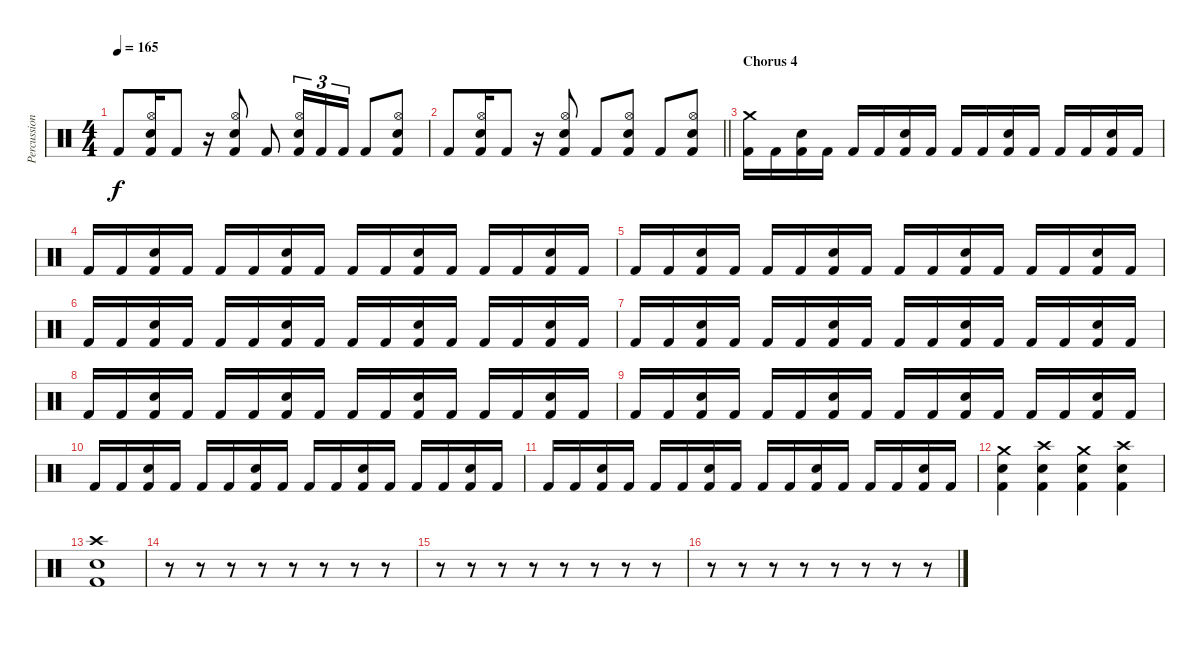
\track ("Percussion" "Percussion") {instrument percussion}
\staff {score}
\articulation defaults
\ts (4 4)
\tempo 165
\clef neutral
\ks c "Kick (hit) 2".8{dy f}
("Hi-Hat (open)" "Kick (hit) 2" "Snare (hit) 2").16 "Kick (hit) 2".8 r.16 ("Hi-Hat (open)" "Kick (hit) 2" "Snare (hit) 2").8 "Kick (hit) 2".8 ("Hi-Hat (open)" "Kick (hit) 2" "Snare (hit) 2").16{tu (3 2)} "Kick (hit) 2".16{tu (3 2)} "Kick (hit) 2".16{tu (3 2)} "Kick (hit) 2".8 ("Hi-Hat (open)" "Kick (hit) 2" "Snare (hit) 2").8 |
\barLineRight lightlight "Kick (hit) 2".8
("Hi-Hat (open)" "Kick (hit) 2" "Snare (hit) 2").16 "Kick (hit) 2".8 r.16 ("Hi-Hat (open)" "Kick (hit) 2" "Snare (hit) 2").8 "Kick (hit) 2".8 ("Hi-Hat (open)" "Kick (hit) 2" "Snare (hit) 2").8 "Kick (hit) 2".8 ("Hi-Hat (open)" "Kick (hit) 2" "Snare (hit) 2").8 |
\section ("" "Chorus 4")
("Crash medium (hit)" "Kick (hit) 2").16 "Kick (hit) 2".16 ("Kick (hit) 2" "Snare (hit) 2").16 "Kick (hit) 2".16 "Kick (hit) 2".16 "Kick (hit) 2".16 ("Kick (hit) 2" "Snare (hit) 2").16 "Kick (hit) 2".16 "Kick (hit) 2".16 "Kick (hit) 2".16 ("Kick (hit) 2" "Snare (hit) 2").16 "Kick (hit) 2".16 "Kick (hit) 2".16 "Kick (hit) 2".16 ("Kick (hit) 2" "Snare (hit) 2").16 "Kick (hit) 2".16 |
"Kick (hit) 2".16 "Kick (hit) 2".16 ("Kick (hit) 2" "Snare (hit) 2").16 "Kick (hit) 2".16 "Kick (hit) 2".16 "Kick (hit) 2".16 ("Kick (hit) 2" "Snare (hit) 2").16 "Kick (hit) 2".16 "Kick (hit) 2".16 "Kick (hit) 2".16 ("Kick (hit) 2" "Snare (hit) 2").16 "Kick (hit) 2".16 "Kick (hit) 2".16 "Kick (hit) 2".16 ("Kick (hit) 2" "Snare (hit) 2").16 "Kick (hit) 2".16 |
"Kick (hit) 2".16 "Kick (hit) 2".16 ("Kick (hit) 2" "Snare (hit) 2").16 "Kick (hit) 2".16 "Kick (hit) 2".16 "Kick (hit) 2".16 ("Kick (hit) 2" "Snare (hit) 2").16 "Kick (hit) 2".16 "Kick (hit) 2".16 "Kick (hit) 2".16 ("Kick (hit) 2" "Snare (hit) 2").16 "Kick (hit) 2".16 "Kick (hit) 2".16 "Kick (hit) 2".16 ("Kick (hit) 2" "Snare (hit) 2").16 "Kick (hit) 2".16 |
"Kick (hit) 2".16 "Kick (hit) 2".16 ("Kick (hit) 2" "Snare (hit) 2").16 "Kick (hit) 2".16 "Kick (hit) 2".16 "Kick (hit) 2".16 ("Kick (hit) 2" "Snare (hit) 2").16 "Kick (hit) 2".16 "Kick (hit) 2".16 "Kick (hit) 2".16 ("Kick (hit) 2" "Snare (hit) 2").16 "Kick (hit) 2".16 "Kick (hit) 2".16 "Kick (hit) 2".16 ("Kick (hit) 2" "Snare (hit) 2").16 "Kick (hit) 2".16 |
"Kick (hit) 2".16 "Kick (hit) 2".16 ("Kick (hit) 2" "Snare (hit) 2").16 "Kick (hit) 2".16 "Kick (hit) 2".16 "Kick (hit) 2".16 ("Kick (hit) 2" "Snare (hit) 2").16 "Kick (hit) 2".16 "Kick (hit) 2".16 "Kick (hit) 2".16 ("Kick (hit) 2" "Snare (hit) 2").16 "Kick (hit) 2".16 "Kick (hit) 2".16 "Kick (hit) 2".16 ("Kick (hit) 2" "Snare (hit) 2").16 "Kick (hit) 2".16 |
"Kick (hit) 2".16 "Kick (hit) 2".16 ("Kick (hit) 2" "Snare (hit) 2").16 "Kick (hit) 2".16 "Kick (hit) 2".16 "Kick (hit) 2".16 ("Kick (hit) 2" "Snare (hit) 2").16 "Kick (hit) 2".16 "Kick (hit) 2".16 "Kick (hit) 2".16 ("Kick (hit) 2" "Snare (hit) 2").16 "Kick (hit) 2".16 "Kick (hit) 2".16 "Kick (hit) 2".16 ("Kick (hit) 2" "Snare (hit) 2").16 "Kick (hit) 2".16 |
"Kick (hit) 2".16 "Kick (hit) 2".16 ("Kick (hit) 2" "Snare (hit) 2").16 "Kick (hit) 2".16 "Kick (hit) 2".16 "Kick (hit) 2".16 ("Kick (hit) 2" "Snare (hit) 2").16 "Kick (hit) 2".16 "Kick (hit) 2".16 "Kick (hit) 2".16 ("Kick (hit) 2" "Snare (hit) 2").16 "Kick (hit) 2".16 "Kick (hit) 2".16 "Kick (hit) 2".16 ("Kick (hit) 2" "Snare (hit) 2").16 "Kick (hit) 2".16 |
"Kick (hit) 2".16 "Kick (hit) 2".16 ("Kick (hit) 2" "Snare (hit) 2").16 "Kick (hit) 2".16 "Kick (hit) 2".16 "Kick (hit) 2".16 ("Kick (hit) 2" "Snare (hit) 2").16 "Kick (hit) 2".16 "Kick (hit) 2".16 "Kick (hit) 2".16 ("Kick (hit) 2" "Snare (hit) 2").16 "Kick (hit) 2".16 "Kick (hit) 2".16 "Kick (hit) 2".16 ("Kick (hit) 2" "Snare (hit) 2").16 "Kick (hit) 2".16 |
"Kick (hit) 2".16 "Kick (hit) 2".16 ("Kick (hit) 2" "Snare (hit) 2").16 "Kick (hit) 2".16 "Kick (hit) 2".16 "Kick (hit) 2".16 ("Kick (hit) 2" "Snare (hit) 2").16 "Kick (hit) 2".16 "Kick (hit) 2".16 "Kick (hit) 2".16 ("Kick (hit) 2" "Snare (hit) 2").16 "Kick (hit) 2".16 "Kick (hit) 2".16 "Kick (hit) 2".16 ("Kick (hit) 2" "Snare (hit) 2").16 "Kick (hit) 2".16 |
("Crash medium (hit)" "Kick (hit) 2" "Snare (hit) 2").4 ("Crash high (hit)" "Kick (hit) 2" "Snare (hit) 2").4 ("Crash medium (hit)" "Kick (hit) 2" "Snare (hit) 2").4 ("Crash high (hit)" "Kick (hit) 2" "Snare (hit) 2").4 |
("Crash high (hit)" "Kick (hit) 2" "Snare (hit) 2").1 |
r.8 r.8 r.8 r.8 r.8 r.8 r.8 r.8 |
r.8 r.8 r.8 r.8 r.8 r.8 r.8 r.8 |
r.8 r.8 r.8 r.8 r.8 r.8 r.8 r.8
